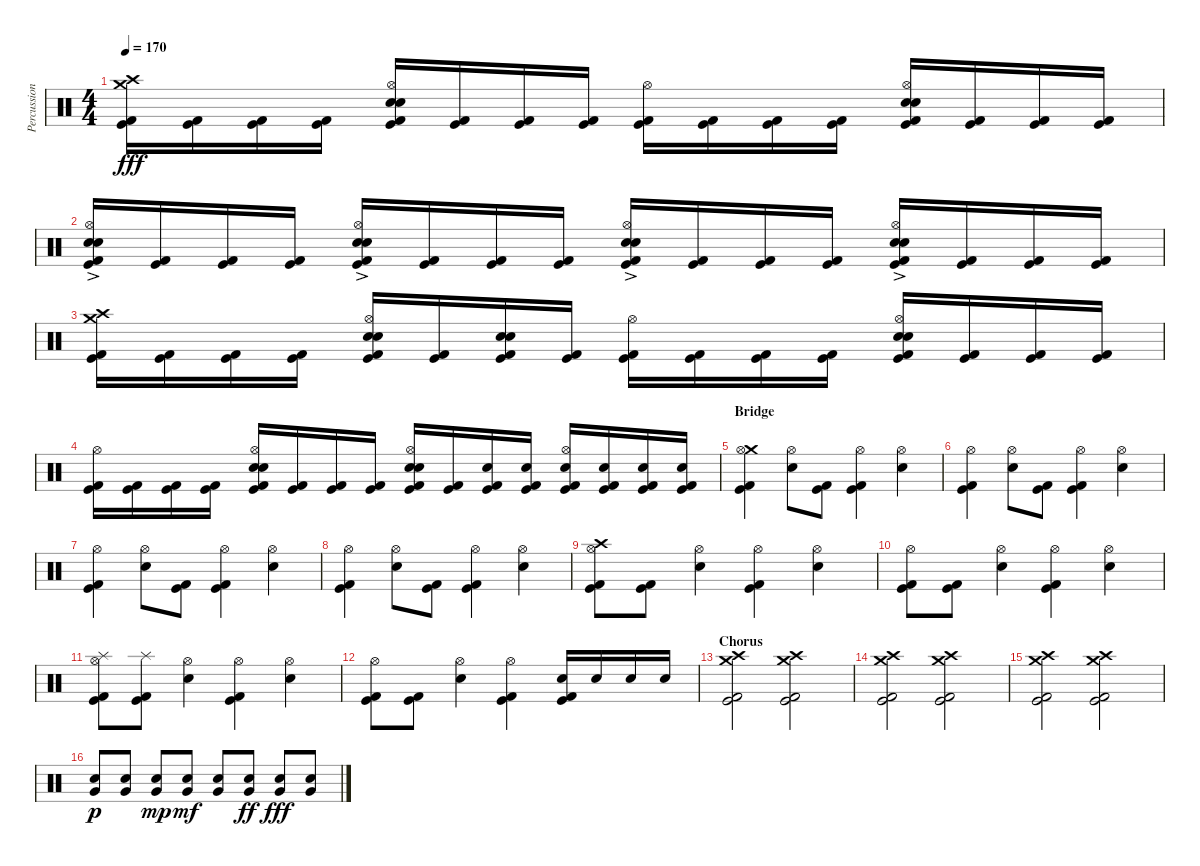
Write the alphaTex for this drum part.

\track ("Percussions" "Percussion") {instrument percussion}
\staff {score}
\articulation defaults
\ts (4 4)
\tempo 170
\clef neutral
\ks c
("Crash high (hit)" "Crash medium (hit)" "Kick (hit)" "Kick (hit) 2").16{dy fff} ("Kick (hit)" "Kick (hit) 2").16 ("Kick (hit)" "Kick (hit) 2").16 ("Kick (hit)" "Kick (hit) 2").16 ("Hi-Hat (open)" "Snare (hit) 2" "Electric Snare (hit)" "Kick (hit)" "Kick (hit) 2").16 ("Kick (hit)" "Kick (hit) 2").16 ("Kick (hit)" "Kick (hit) 2").16 ("Kick (hit)" "Kick (hit) 2").16 ("Hi-Hat (open)" "Kick (hit)" "Kick (hit) 2").16 ("Kick (hit)" "Kick (hit) 2").16 ("Kick (hit)" "Kick (hit) 2").16 ("Kick (hit)" "Kick (hit) 2").16 ("Hi-Hat (open)" "Snare (hit) 2" "Electric Snare (hit)" "Kick (hit)" "Kick (hit) 2").16 ("Kick (hit)" "Kick (hit) 2").16 ("Kick (hit)" "Kick (hit) 2").16 ("Kick (hit)" "Kick (hit) 2").16 |
("Hi-Hat (open)" "Snare (hit) 2"{ac} "Electric Snare (hit)"{ac} "Kick (hit)" "Kick (hit) 2").16 ("Kick (hit)" "Kick (hit) 2").16 ("Kick (hit)" "Kick (hit) 2").16 ("Kick (hit)" "Kick (hit) 2").16 ("Hi-Hat (open)" "Snare (hit) 2"{ac} "Electric Snare (hit)"{ac} "Kick (hit)" "Kick (hit) 2").16 ("Kick (hit)" "Kick (hit) 2").16 ("Kick (hit)" "Kick (hit) 2").16 ("Kick (hit)" "Kick (hit) 2").16 ("Hi-Hat (open)" "Snare (hit) 2"{ac} "Electric Snare (hit)"{ac} "Kick (hit)" "Kick (hit) 2").16 ("Kick (hit)" "Kick (hit) 2").16 ("Kick (hit)" "Kick (hit) 2").16 ("Kick (hit)" "Kick (hit) 2").16 ("Hi-Hat (open)" "Snare (hit) 2"{ac} "Electric Snare (hit)"{ac} "Kick (hit)" "Kick (hit) 2").16 ("Kick (hit)" "Kick (hit) 2").16 ("Kick (hit)" "Kick (hit) 2").16 ("Kick (hit)" "Kick (hit) 2").16 |
("Crash high (hit)" "Crash medium (hit)" "Kick (hit)" "Kick (hit) 2").16 ("Kick (hit)" "Kick (hit) 2").16 ("Kick (hit)" "Kick (hit) 2").16 ("Kick (hit)" "Kick (hit) 2").16 ("Hi-Hat (open)" "Snare (hit) 2" "Electric Snare (hit)" "Kick (hit)" "Kick (hit) 2").16 ("Kick (hit)" "Kick (hit) 2").16 ("Snare (hit) 2" "Electric Snare (hit)" "Kick (hit)" "Kick (hit) 2").16 ("Kick (hit)" "Kick (hit) 2").16 ("Hi-Hat (open)" "Kick (hit)" "Kick (hit) 2").16 ("Kick (hit)" "Kick (hit) 2").16 ("Kick (hit)" "Kick (hit) 2").16 ("Kick (hit)" "Kick (hit) 2").16 ("Hi-Hat (open)" "Snare (hit) 2" "Electric Snare (hit)" "Kick (hit)" "Kick (hit) 2").16 ("Kick (hit)" "Kick (hit) 2").16 ("Kick (hit)" "Kick (hit) 2").16 ("Kick (hit)" "Kick (hit) 2").16 |
("Hi-Hat (open)" "Kick (hit)" "Kick (hit) 2").16 ("Kick (hit)" "Kick (hit) 2").16 ("Kick (hit)" "Kick (hit) 2").16 ("Kick (hit)" "Kick (hit) 2").16 ("Hi-Hat (open)" "Snare (hit) 2" "Electric Snare (hit)" "Kick (hit)" "Kick (hit) 2").16 ("Kick (hit)" "Kick (hit) 2").16 ("Kick (hit)" "Kick (hit) 2").16 ("Kick (hit)" "Kick (hit) 2").16 ("Hi-Hat (open)" "Snare (hit) 2" "Electric Snare (hit)" "Kick (hit)" "Kick (hit) 2").16 ("Kick (hit)" "Kick (hit) 2").16 ("Electric Snare (hit)" "Kick (hit)" "Kick (hit) 2").16 ("Electric Snare (hit)" "Kick (hit)" "Kick (hit) 2").16 ("Hi-Hat (open)" "Electric Snare (hit)" "Kick (hit)" "Kick (hit) 2").16 ("Electric Snare (hit)" "Kick (hit)" "Kick (hit) 2").16 ("Electric Snare (hit)" "Kick (hit)" "Kick (hit) 2").16 ("Electric Snare (hit)" "Kick (hit)" "Kick (hit) 2").16 |
\section ("" "Bridge")
("Crash medium (hit)" "Hi-Hat (open)" "Kick (hit)" "Kick (hit) 2").4 ("Hi-Hat (open)" "Electric Snare (hit)").8 ("Kick (hit)" "Kick (hit) 2").8 ("Hi-Hat (open)" "Kick (hit)" "Kick (hit) 2").4 ("Hi-Hat (open)" "Electric Snare (hit)").4 |
("Hi-Hat (open)" "Kick (hit)" "Kick (hit) 2").4 ("Hi-Hat (open)" "Electric Snare (hit)").8 ("Kick (hit)" "Kick (hit) 2").8 ("Hi-Hat (open)" "Kick (hit)" "Kick (hit) 2").4 ("Hi-Hat (open)" "Electric Snare (hit)").4 |
("Hi-Hat (open)" "Kick (hit)" "Kick (hit) 2").4 ("Hi-Hat (open)" "Electric Snare (hit)").8 ("Kick (hit)" "Kick (hit) 2").8 ("Hi-Hat (open)" "Kick (hit)" "Kick (hit) 2").4 ("Hi-Hat (open)" "Electric Snare (hit)").4 |
("Hi-Hat (open)" "Kick (hit)" "Kick (hit) 2").4 ("Hi-Hat (open)" "Electric Snare (hit)").8 ("Kick (hit)" "Kick (hit) 2").8 ("Hi-Hat (open)" "Kick (hit)" "Kick (hit) 2").4 ("Hi-Hat (open)" "Electric Snare (hit)").4 |
("Crash high (hit)" "Hi-Hat (open)" "Kick (hit)" "Kick (hit) 2").8 ("Kick (hit)" "Kick (hit) 2").8 ("Hi-Hat (open)" "Electric Snare (hit)").4 ("Hi-Hat (open)" "Kick (hit)" "Kick (hit) 2").4 ("Hi-Hat (open)" "Electric Snare (hit)").4 |
("Hi-Hat (open)" "Kick (hit)" "Kick (hit) 2").8 ("Kick (hit)" "Kick (hit) 2").8 ("Hi-Hat (open)" "Electric Snare (hit)").4 ("Hi-Hat (open)" "Kick (hit)" "Kick (hit) 2").4 ("Hi-Hat (open)" "Electric Snare (hit)").4 |
("Splash (hit)" "Hi-Hat (open)" "Kick (hit)" "Kick (hit) 2").8 ("Splash (hit)" "Kick (hit)" "Kick (hit) 2").8 ("Hi-Hat (open)" "Electric Snare (hit)").4 ("Hi-Hat (open)" "Kick (hit)" "Kick (hit) 2").4 ("Hi-Hat (open)" "Electric Snare (hit)").4 |
("Hi-Hat (open)" "Kick (hit)" "Kick (hit) 2").8 ("Kick (hit)" "Kick (hit) 2").8 ("Hi-Hat (open)" "Electric Snare (hit)").4 ("Hi-Hat (open)" "Kick (hit)" "Kick (hit) 2").4 ("Electric Snare (hit)" "Kick (hit)" "Kick (hit) 2").16 "Electric Snare (hit)".16 "Electric Snare (hit)".16 "Electric Snare (hit)".16 |
\section ("" "Chorus")
("Crash high (hit)" "Crash medium (hit)" "Kick (hit)" "Kick (hit) 2").2 ("Crash high (hit)" "Crash medium (hit)" "Kick (hit)" "Kick (hit) 2").2 |
("Crash high (hit)" "Crash medium (hit)" "Kick (hit)" "Kick (hit) 2").2 ("Crash high (hit)" "Crash medium (hit)" "Kick (hit)" "Kick (hit) 2").2 |
("Crash high (hit)" "Crash medium (hit)" "Kick (hit)" "Kick (hit) 2").2 ("Crash high (hit)" "Crash medium (hit)" "Kick (hit)" "Kick (hit) 2").2 |
("Very Low Tom (hit)" "Electric Snare (hit)").8{dy p} ("Very Low Tom (hit)" "Electric Snare (hit)").8 ("Very Low Tom (hit)" "Electric Snare (hit)").8{dy mp} ("Very Low Tom (hit)" "Electric Snare (hit)").8{dy mf} ("Very Low Tom (hit)" "Electric Snare (hit)").8 ("Very Low Tom (hit)" "Electric Snare (hit)").8{dy ff} ("Very Low Tom (hit)" "Electric Snare (hit)").8{dy fff} ("Very Low Tom (hit)" "Electric Snare (hit)").8
